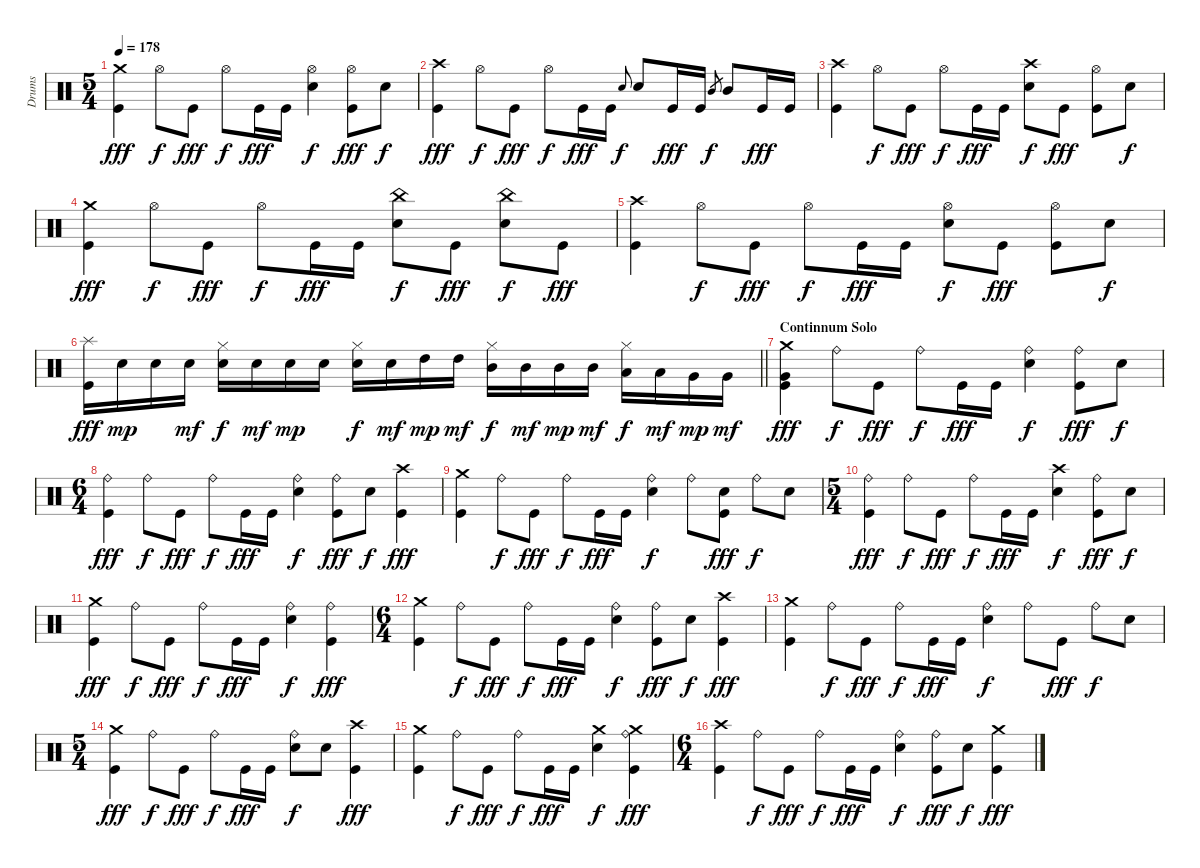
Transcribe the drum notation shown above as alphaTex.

\track ("Drums" "Drums") {instrument percussion}
\staff {score}
\articulation defaults
\ts (5 4)
\tempo 178
\clef neutral
\ks c
("Crash medium (hit)" "Kick (hit)").4{dy fff} "Hi-Hat (open)".8{dy f} "Kick (hit)".8{dy fff} "Hi-Hat (open)".8{dy f} "Kick (hit)".16{dy fff} "Kick (hit)".16 ("Hi-Hat (open)" "Electric Snare (hit)").4{dy f} ("Hi-Hat (open)" "Kick (hit)").8{dy fff} "Electric Snare (hit)".8{dy f} |
("Crash high (hit)" "Kick (hit)").4{dy fff} "Hi-Hat (open)".8{dy f} "Kick (hit)".8{dy fff} "Hi-Hat (open)".8{dy f} "Kick (hit)".16{dy fff} "Kick (hit)".16 "Electric Snare (hit)".8{gr onbeat dy f} "Electric Snare (hit)".8 "Kick (hit)".16{dy fff} "Kick (hit)".16 "Mid Tom (hit)".8{gr dy f} "Mid Tom (hit)".8 "Kick (hit)".16{dy fff} "Kick (hit)".16 |
("Crash high (hit)" "Kick (hit)").4 "Hi-Hat (open)".8{dy f} "Kick (hit)".8{dy fff} "Hi-Hat (open)".8{dy f} "Kick (hit)".16{dy fff} "Kick (hit)".16 ("Crash high (hit)" "Electric Snare (hit)").8{dy f} "Kick (hit)".8{dy fff} ("Hi-Hat (open)" "Kick (hit)").8 "Electric Snare (hit)".8{dy f} |
("Crash medium (hit)" "Kick (hit)").4{dy fff} "Hi-Hat (open)".8{dy f} "Kick (hit)".8{dy fff} "Hi-Hat (open)".8{dy f} "Kick (hit)".16{dy fff} "Kick (hit)".16 ("China (hit)" "Electric Snare (hit)").8{dy f} "Kick (hit)".8{dy fff} ("China (hit)" "Electric Snare (hit)").8{dy f} "Kick (hit)".8{dy fff} |
("Crash high (hit)" "Kick (hit)").4 "Hi-Hat (open)".8{dy f} "Kick (hit)".8{dy fff} "Hi-Hat (open)".8{dy f} "Kick (hit)".16{dy fff} "Kick (hit)".16 ("Hi-Hat (open)" "Electric Snare (hit)").8{dy f} "Kick (hit)".8{dy fff} ("Hi-Hat (open)" "Kick (hit)").8 "Electric Snare (hit)".8{dy f} |
\barLineRight lightlight
("Splash (hit)" "Kick (hit)").16{dy fff} "Electric Snare (hit)".16{dy mp} "Electric Snare (hit)".16 "Electric Snare (hit)".16{dy mf} ("Hi-Hat (closed)" "Electric Snare (hit)").16{dy f} "Electric Snare (hit)".16{dy mf} "Electric Snare (hit)".16{dy mp} "Electric Snare (hit)".16 ("Hi-Hat (closed)" "Electric Snare (hit)").16{dy f} "Electric Snare (hit)".16{dy mf} "High Tom (hit)".16{dy mp} "High Tom (hit)".16{dy mf} ("Hi-Hat (closed)" "Mid Tom (hit)").16{dy f} "Mid Tom (hit)".16{dy mf} "Mid Tom (hit)".16{dy mp} "Mid Tom (hit)".16{dy mf} ("Hi-Hat (closed)" "Low Tom (hit)").16{dy f} "Low Tom (hit)".16{dy mf} "Very Low Tom (hit)".16{dy mp} "Very Low Tom (hit)".16{dy mf} |
\section ("" "Continnum Solo")
("Crash medium (hit)" "Very Low Tom (hit)" "Kick (hit)").4{dy fff} "Ride (bell)".8{dy f} "Kick (hit)".8{dy fff} "Ride (bell)".8{dy f} "Kick (hit)".16{dy fff} "Kick (hit)".16 ("Ride (bell)" "Electric Snare (hit)").4{dy f} ("Ride (bell)" "Kick (hit)").8{dy fff} "Electric Snare (hit)".8{dy f} |
\ts (6 4)
("Ride (bell)" "Kick (hit)").4{dy fff} "Ride (bell)".8{dy f} "Kick (hit)".8{dy fff} "Ride (bell)".8{dy f} "Kick (hit)".16{dy fff} "Kick (hit)".16 ("Ride (bell)" "Electric Snare (hit)").4{dy f} ("Ride (bell)" "Kick (hit)").8{dy fff} "Electric Snare (hit)".8{dy f} ("Crash high (hit)" "Kick (hit)").4{dy fff} |
("Crash medium (hit)" "Kick (hit)").4 "Ride (bell)".8{dy f} "Kick (hit)".8{dy fff} "Ride (bell)".8{dy f} "Kick (hit)".16{dy fff} "Kick (hit)".16 ("Ride (bell)" "Electric Snare (hit)").4{dy f} "Ride (bell)".8 ("Electric Snare (hit)" "Kick (hit)").8{dy fff} "Ride (bell)".8{dy f} "Electric Snare (hit)".8 |
\ts (5 4)
("Ride (bell)" "Kick (hit)").4{dy fff} "Ride (bell)".8{dy f} "Kick (hit)".8{dy fff} "Ride (bell)".8{dy f} "Kick (hit)".16{dy fff} "Kick (hit)".16 ("Crash high (hit)" "Electric Snare (hit)").4{dy f} ("Ride (bell)" "Kick (hit)").8{dy fff} "Electric Snare (hit)".8{dy f} |
("Crash medium (hit)" "Kick (hit)").4{dy fff} "Ride (bell)".8{dy f} "Kick (hit)".8{dy fff} "Ride (bell)".8{dy f} "Kick (hit)".16{dy fff} "Kick (hit)".16 ("Ride (bell)" "Electric Snare (hit)").4{dy f} ("Ride (bell)" "Kick (hit)").4{dy fff} |
\ts (6 4)
("Crash medium (hit)" "Kick (hit)").4 "Ride (bell)".8{dy f} "Kick (hit)".8{dy fff} "Ride (bell)".8{dy f} "Kick (hit)".16{dy fff} "Kick (hit)".16 ("Ride (bell)" "Electric Snare (hit)").4{dy f} ("Ride (bell)" "Kick (hit)").8{dy fff} "Electric Snare (hit)".8{dy f} ("Crash high (hit)" "Kick (hit)").4{dy fff} |
("Crash medium (hit)" "Kick (hit)").4 "Ride (bell)".8{dy f} "Kick (hit)".8{dy fff} "Ride (bell)".8{dy f} "Kick (hit)".16{dy fff} "Kick (hit)".16 ("Ride (bell)" "Electric Snare (hit)").4{dy f} "Ride (bell)".8 "Kick (hit)".8{dy fff} "Ride (bell)".8{dy f} "Electric Snare (hit)".8 |
\ts (5 4)
("Crash medium (hit)" "Kick (hit)").4{dy fff} "Ride (bell)".8{dy f} "Kick (hit)".8{dy fff} "Ride (bell)".8{dy f} "Kick (hit)".16{dy fff} "Kick (hit)".16 ("Ride (bell)" "Electric Snare (hit)").8{dy f} "Electric Snare (hit)".8 ("Crash high (hit)" "Kick (hit)").4{dy fff} |
("Crash medium (hit)" "Kick (hit)").4 "Ride (bell)".8{dy f} "Kick (hit)".8{dy fff} "Ride (bell)".8{dy f} "Kick (hit)".16{dy fff} "Kick (hit)".16 ("Crash medium (hit)" "Electric Snare (hit)").4{dy f} ("Crash medium (hit)" "Ride (bell)" "Kick (hit)").4{dy fff} |
\ts (6 4)
("Crash high (hit)" "Kick (hit)").4 "Ride (bell)".8{dy f} "Kick (hit)".8{dy fff} "Ride (bell)".8{dy f} "Kick (hit)".16{dy fff} "Kick (hit)".16 ("Ride (bell)" "Electric Snare (hit)").4{dy f} ("Ride (bell)" "Kick (hit)").8{dy fff} "Electric Snare (hit)".8{dy f} ("Crash medium (hit)" "Kick (hit)").4{dy fff}
